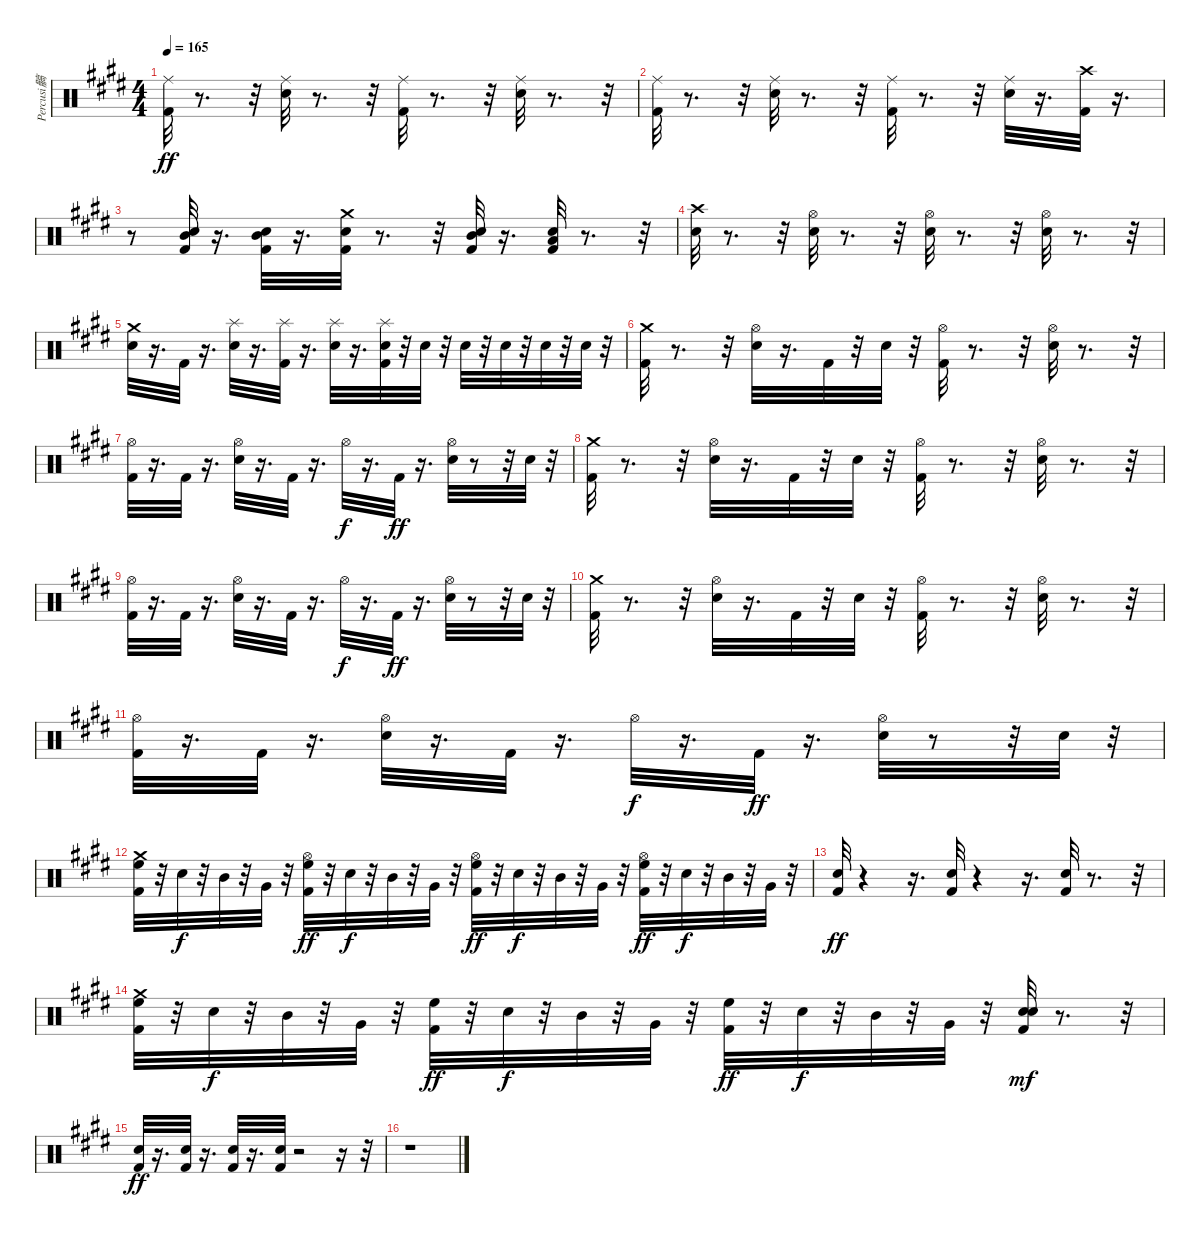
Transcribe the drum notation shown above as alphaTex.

\track ("Percusi髇" "Percusi髇") {instrument percussion}
\staff {score}
\articulation defaults
\ts (4 4)
\tempo 165
\clef neutral
\ks e
("Kick (hit) 2" "Ride (middle)").32{dy ff} r.8{d} r.32 ("Electric Snare (hit)" "Ride (middle)").32 r.8{d} r.32 ("Kick (hit) 2" "Ride (middle)").32 r.8{d} r.32 ("Electric Snare (hit)" "Ride (middle)").32 r.8{d} r.32 |
("Kick (hit) 2" "Ride (middle)").32 r.8{d} r.32 ("Electric Snare (hit)" "Ride (middle)").32 r.8{d} r.32 ("Kick (hit) 2" "Ride (middle)").32 r.8{d} r.32 ("Electric Snare (hit)" "Ride (middle)").32 r.16{d} ("Crash high (hit)" "Kick (hit) 2").32 r.16{d} |
r.8 ("Mid Tom (hit)" "Kick (hit) 2" "Electric Snare (hit)").32 r.16{d} ("Mid Tom (hit)" "Kick (hit) 2" "Electric Snare (hit)").32 r.16{d} ("Crash medium (hit)" "Kick (hit) 2" "Electric Snare (hit)").32 r.8{d} r.32 ("Mid Tom (hit)" "Kick (hit) 2" "Electric Snare (hit)").32 r.16{d} ("Kick (hit) 2" "Low Tom (hit)" "Electric Snare (hit)").32 r.8{d} r.32 |
("Crash high (hit)" "Electric Snare (hit)").32 r.8{d} r.32 ("Electric Snare (hit)" "Hi-Hat (open)").32 r.8{d} r.32 ("Electric Snare (hit)" "Hi-Hat (open)").32 r.8{d} r.32 ("Electric Snare (hit)" "Hi-Hat (open)").32 r.8{d} r.32 |
("Crash medium (hit)" "Electric Snare (hit)").32 r.16{d} "Kick (hit) 2".32 r.16{d} ("Splash (hit)" "Electric Snare (hit)").32 r.16{d} ("Splash (hit)" "Kick (hit) 2").32 r.16{d} ("Splash (hit)" "Electric Snare (hit)").32 r.16{d} ("Splash (hit)" "Kick (hit) 2" "Electric Snare (hit)").32 r.32 "Electric Snare (hit)".32 r.32 "Electric Snare (hit)".32 r.32 "Electric Snare (hit)".32 r.32 "Electric Snare (hit)".32 r.32 "Electric Snare (hit)".32 r.32 |
("Crash medium (hit)" "Kick (hit) 2").32 r.8{d} r.32 ("Electric Snare (hit)" "Hi-Hat (open)").32 r.16{d} "Kick (hit) 2".32 r.32 "Electric Snare (hit)".32 r.32 ("Kick (hit) 2" "Hi-Hat (open)").32 r.8{d} r.32 ("Electric Snare (hit)" "Hi-Hat (open)").32 r.8{d} r.32 |
("Kick (hit) 2" "Hi-Hat (open)").32 r.16{d} "Kick (hit) 2".32 r.16{d} ("Electric Snare (hit)" "Hi-Hat (open)").32 r.16{d} "Kick (hit) 2".32 r.16{d} "Hi-Hat (open)".32{dy f} r.16{d} "Kick (hit) 2".32{dy ff} r.16{d} ("Electric Snare (hit)" "Hi-Hat (open)").32 r.8 r.32 "Electric Snare (hit)".32 r.32 |
("Crash medium (hit)" "Kick (hit) 2").32 r.8{d} r.32 ("Electric Snare (hit)" "Hi-Hat (open)").32 r.16{d} "Kick (hit) 2".32 r.32 "Electric Snare (hit)".32 r.32 ("Kick (hit) 2" "Hi-Hat (open)").32 r.8{d} r.32 ("Electric Snare (hit)" "Hi-Hat (open)").32 r.8{d} r.32 |
("Kick (hit) 2" "Hi-Hat (open)").32 r.16{d} "Kick (hit) 2".32 r.16{d} ("Electric Snare (hit)" "Hi-Hat (open)").32 r.16{d} "Kick (hit) 2".32 r.16{d} "Hi-Hat (open)".32{dy f} r.16{d} "Kick (hit) 2".32{dy ff} r.16{d} ("Electric Snare (hit)" "Hi-Hat (open)").32 r.8 r.32 "Electric Snare (hit)".32 r.32 |
("Crash medium (hit)" "Kick (hit) 2").32 r.8{d} r.32 ("Electric Snare (hit)" "Hi-Hat (open)").32 r.16{d} "Kick (hit) 2".32 r.32 "Electric Snare (hit)".32 r.32 ("Kick (hit) 2" "Hi-Hat (open)").32 r.8{d} r.32 ("Electric Snare (hit)" "Hi-Hat (open)").32 r.8{d} r.32 |
("Kick (hit) 2" "Hi-Hat (open)").32 r.16{d} "Kick (hit) 2".32 r.16{d} ("Electric Snare (hit)" "Hi-Hat (open)").32 r.16{d} "Kick (hit) 2".32 r.16{d} "Hi-Hat (open)".32{dy f} r.16{d} "Kick (hit) 2".32{dy ff} r.16{d} ("Electric Snare (hit)" "Hi-Hat (open)").32 r.8 r.32 "Electric Snare (hit)".32 r.32 |
("High Floor Tom (hit)" "Crash medium (hit)" "Kick (hit) 2").32 r.32 "Electric Snare (hit)".32{dy f} r.32 "Mid Tom (hit)".32 r.32 "Very Low Tom (hit)".32 r.32 ("High Floor Tom (hit)" "Kick (hit) 2" "Hi-Hat (open)").32{dy ff} r.32 "Electric Snare (hit)".32{dy f} r.32 "Mid Tom (hit)".32 r.32 "Very Low Tom (hit)".32 r.32 ("High Floor Tom (hit)" "Kick (hit) 2" "Hi-Hat (open)").32{dy ff} r.32 "Electric Snare (hit)".32{dy f} r.32 "Mid Tom (hit)".32 r.32 "Very Low Tom (hit)".32 r.32 ("High Floor Tom (hit)" "Kick (hit) 2" "Hi-Hat (open)").32{dy ff} r.32 "Electric Snare (hit)".32{dy f} r.32 "Mid Tom (hit)".32 r.32 "Very Low Tom (hit)".32 r.32 |
("Kick (hit) 2" "Electric Snare (hit)").32{dy ff} r.4 r.16{d} ("Kick (hit) 2" "Electric Snare (hit)").32 r.4 r.16{d} ("Kick (hit) 2" "Electric Snare (hit)").32 r.8{d} r.32 |
("High Floor Tom (hit)" "Crash medium (hit)" "Kick (hit) 2").32 r.32 "Electric Snare (hit)".32{dy f} r.32 "Mid Tom (hit)".32 r.32 "Very Low Tom (hit)".32 r.32 ("High Floor Tom (hit)" "Kick (hit) 2").32{dy ff} r.32 "Electric Snare (hit)".32{dy f} r.32 "Mid Tom (hit)".32 r.32 "Very Low Tom (hit)".32 r.32 ("High Floor Tom (hit)" "Kick (hit) 2").32{dy ff} r.32 "Electric Snare (hit)".32{dy f} r.32 "Mid Tom (hit)".32 r.32 "Very Low Tom (hit)".32 r.32 ("Kick (hit) 2" "Electric Snare (hit)" "Electric Snare (hit)").32{dy mf} r.8{d} r.32 |
("Kick (hit) 2" "Electric Snare (hit)").32{dy ff} r.16{d} ("Kick (hit) 2" "Electric Snare (hit)").32 r.16{d} ("Kick (hit) 2" "Electric Snare (hit)").32 r.16{d} ("Kick (hit) 2" "Electric Snare (hit)").32 r.2 r.16 r.32 |
r.1
